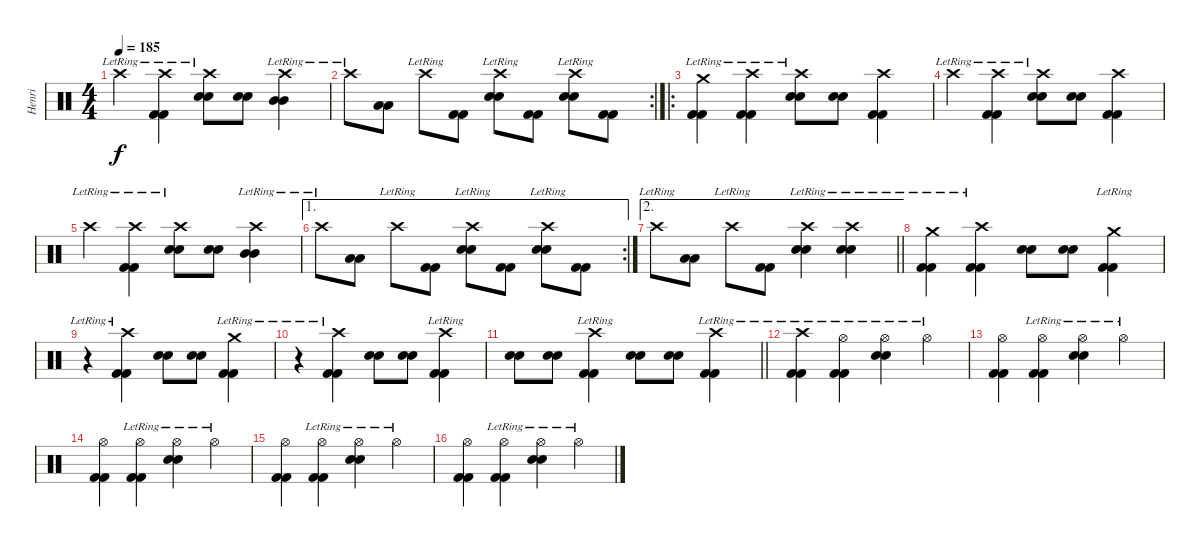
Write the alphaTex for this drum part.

\track ("Henri" "Henri") {instrument percussion}
\staff {score}
\articulation defaults
\ts (4 4)
\tempo 185
\clef neutral
\ks c "Crash high (hit)"{lr}.4{dy f}
("Crash high (hit)"{lr} "Kick (hit) 2" "Kick (hit) 2").4 ("Crash high (hit)"{lr} "Snare (hit) 2" "Snare (hit) 2").8 ("Snare (hit) 2" "Snare (hit) 2").8 ("Crash high (hit)"{lr} "Mid Tom (hit)" "Mid Tom (hit)").4 |
\rc 2 "Crash high (hit)"{lr}.8
("Low Tom (hit)" "Low Tom (hit)").8 "Crash high (hit)"{lr}.8 ("Kick (hit) 2" "Kick (hit) 2").8 ("Crash high (hit)"{lr} "Snare (hit) 2" "Snare (hit) 2").8 ("Kick (hit) 2" "Kick (hit) 2").8 ("Crash high (hit)"{lr} "Snare (hit) 2" "Snare (hit) 2").8 ("Kick (hit) 2" "Kick (hit) 2").8 |
\ro
("Crash medium (hit)"{lr} "Kick (hit) 2" "Kick (hit) 2").4 ("Crash high (hit)"{lr} "Kick (hit) 2" "Kick (hit) 2").4 ("Crash high (hit)"{lr} "Snare (hit) 2" "Snare (hit) 2").8 ("Snare (hit) 2" "Snare (hit) 2").8 ("Crash high (hit)" "Kick (hit) 2" "Kick (hit) 2").4 |
"Crash high (hit)"{lr}.4 ("Crash high (hit)"{lr} "Kick (hit) 2" "Kick (hit) 2").4 ("Crash high (hit)"{lr} "Snare (hit) 2" "Snare (hit) 2").8 ("Snare (hit) 2" "Snare (hit) 2").8 ("Crash high (hit)" "Kick (hit) 2" "Kick (hit) 2").4 |
"Crash high (hit)"{lr}.4 ("Crash high (hit)"{lr} "Kick (hit) 2" "Kick (hit) 2").4 ("Crash high (hit)"{lr} "Snare (hit) 2" "Snare (hit) 2").8 ("Snare (hit) 2" "Snare (hit) 2").8 ("Crash high (hit)"{lr} "Mid Tom (hit)" "Mid Tom (hit)").4 |
\ae 1
\rc 2 "Crash high (hit)"{lr}.8
("Low Tom (hit)" "Low Tom (hit)").8 "Crash high (hit)"{lr}.8 ("Kick (hit) 2" "Kick (hit) 2").8 ("Crash high (hit)"{lr} "Snare (hit) 2" "Snare (hit) 2").8 ("Kick (hit) 2" "Kick (hit) 2").8 ("Crash high (hit)"{lr} "Snare (hit) 2" "Snare (hit) 2").8 ("Kick (hit) 2" "Kick (hit) 2").8 |
\ae 2
\barLineRight lightlight "Crash high (hit)"{lr}.8
("Low Tom (hit)" "Low Tom (hit)").8 "Crash high (hit)"{lr}.8 ("Kick (hit) 2" "Kick (hit) 2").8 ("Crash high (hit)"{lr} "Snare (hit) 2" "Snare (hit) 2").4 ("Crash high (hit)"{lr} "Snare (hit) 2" "Snare (hit) 2").4 |
("Crash medium (hit)"{lr} "Kick (hit) 2" "Kick (hit) 2").4 ("Crash high (hit)"{lr} "Kick (hit) 2" "Kick (hit) 2").4 ("Snare (hit) 2" "Snare (hit) 2").8 ("Snare (hit) 2" "Snare (hit) 2").8 ("Crash medium (hit)"{lr} "Kick (hit) 2" "Kick (hit) 2").4 |
r.4 ("Crash high (hit)"{lr} "Kick (hit) 2" "Kick (hit) 2").4 ("Snare (hit) 2" "Snare (hit) 2").8 ("Snare (hit) 2" "Snare (hit) 2").8 ("Crash medium (hit)"{lr} "Kick (hit) 2" "Kick (hit) 2").4 |
r.4 ("Crash high (hit)"{lr} "Kick (hit) 2" "Kick (hit) 2").4 ("Snare (hit) 2" "Snare (hit) 2").8 ("Snare (hit) 2" "Snare (hit) 2").8 ("Crash high (hit)"{lr} "Kick (hit) 2" "Kick (hit) 2").4 |
\barLineRight lightlight
("Snare (hit) 2" "Snare (hit) 2").8 ("Snare (hit) 2" "Snare (hit) 2").8 ("Crash high (hit)"{lr} "Kick (hit) 2" "Kick (hit) 2").4 ("Snare (hit) 2" "Snare (hit) 2").8 ("Snare (hit) 2" "Snare (hit) 2").8 ("Crash high (hit)"{lr} "Kick (hit) 2" "Kick (hit) 2").4 |
("Crash high (hit)"{lr} "Kick (hit) 2" "Kick (hit) 2").4 ("Hi-Hat (open)"{lr} "Kick (hit) 2" "Kick (hit) 2").4 ("Hi-Hat (open)"{lr} "Snare (hit) 2" "Snare (hit) 2").4 "Hi-Hat (open)"{lr}.4 |
("Hi-Hat (open)" "Kick (hit) 2" "Kick (hit) 2").4 ("Hi-Hat (open)"{lr} "Kick (hit) 2" "Kick (hit) 2").4 ("Hi-Hat (open)"{lr} "Snare (hit) 2" "Snare (hit) 2").4 "Hi-Hat (open)"{lr}.4 |
("Hi-Hat (open)" "Kick (hit) 2" "Kick (hit) 2").4 ("Hi-Hat (open)"{lr} "Kick (hit) 2" "Kick (hit) 2").4 ("Hi-Hat (open)"{lr} "Snare (hit) 2" "Snare (hit) 2").4 "Hi-Hat (open)"{lr}.4 |
("Hi-Hat (open)" "Kick (hit) 2" "Kick (hit) 2").4 ("Hi-Hat (open)"{lr} "Kick (hit) 2" "Kick (hit) 2").4 ("Hi-Hat (open)"{lr} "Snare (hit) 2" "Snare (hit) 2").4 "Hi-Hat (open)"{lr}.4 |
("Hi-Hat (open)" "Kick (hit) 2" "Kick (hit) 2").4 ("Hi-Hat (open)"{lr} "Kick (hit) 2" "Kick (hit) 2").4 ("Hi-Hat (open)"{lr} "Snare (hit) 2" "Snare (hit) 2").4 "Hi-Hat (open)"{lr}.4
